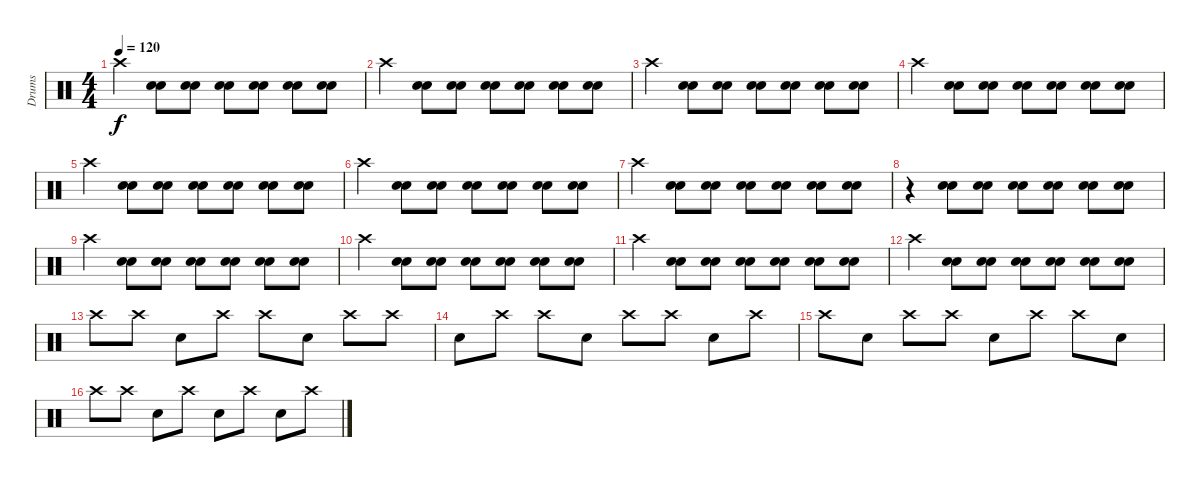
\track ("Drums" "Drums") {instrument percussion}
\staff {score}
\articulation defaults
\ts (4 4)
\tempo 120
\clef neutral
\ks c "Crash high (hit)".4{dy f}
("Electric Snare (hit)" "Electric Snare (hit)").8 ("Electric Snare (hit)" "Electric Snare (hit)").8 ("Electric Snare (hit)" "Electric Snare (hit)").8 ("Electric Snare (hit)" "Electric Snare (hit)").8 ("Electric Snare (hit)" "Electric Snare (hit)").8 ("Electric Snare (hit)" "Electric Snare (hit)").8 |
"Crash high (hit)".4 ("Electric Snare (hit)" "Electric Snare (hit)").8 ("Electric Snare (hit)" "Electric Snare (hit)").8 ("Electric Snare (hit)" "Electric Snare (hit)").8 ("Electric Snare (hit)" "Electric Snare (hit)").8 ("Electric Snare (hit)" "Electric Snare (hit)").8 ("Electric Snare (hit)" "Electric Snare (hit)").8 |
"Crash high (hit)".4 ("Electric Snare (hit)" "Electric Snare (hit)").8 ("Electric Snare (hit)" "Electric Snare (hit)").8 ("Electric Snare (hit)" "Electric Snare (hit)").8 ("Electric Snare (hit)" "Electric Snare (hit)").8 ("Electric Snare (hit)" "Electric Snare (hit)").8 ("Electric Snare (hit)" "Electric Snare (hit)").8 |
"Crash high (hit)".4 ("Electric Snare (hit)" "Electric Snare (hit)").8 ("Electric Snare (hit)" "Electric Snare (hit)").8 ("Electric Snare (hit)" "Electric Snare (hit)").8 ("Electric Snare (hit)" "Electric Snare (hit)").8 ("Electric Snare (hit)" "Electric Snare (hit)").8 ("Electric Snare (hit)" "Electric Snare (hit)").8 |
"Crash high (hit)".4 ("Electric Snare (hit)" "Electric Snare (hit)").8 ("Electric Snare (hit)" "Electric Snare (hit)").8 ("Electric Snare (hit)" "Electric Snare (hit)").8 ("Electric Snare (hit)" "Electric Snare (hit)").8 ("Electric Snare (hit)" "Electric Snare (hit)").8 ("Electric Snare (hit)" "Electric Snare (hit)").8 |
"Crash high (hit)".4 ("Electric Snare (hit)" "Electric Snare (hit)").8 ("Electric Snare (hit)" "Electric Snare (hit)").8 ("Electric Snare (hit)" "Electric Snare (hit)").8 ("Electric Snare (hit)" "Electric Snare (hit)").8 ("Electric Snare (hit)" "Electric Snare (hit)").8 ("Electric Snare (hit)" "Electric Snare (hit)").8 |
"Crash high (hit)".4 ("Electric Snare (hit)" "Electric Snare (hit)").8 ("Electric Snare (hit)" "Electric Snare (hit)").8 ("Electric Snare (hit)" "Electric Snare (hit)").8 ("Electric Snare (hit)" "Electric Snare (hit)").8 ("Electric Snare (hit)" "Electric Snare (hit)").8 ("Electric Snare (hit)" "Electric Snare (hit)").8 |
r.4 ("Electric Snare (hit)" "Electric Snare (hit)").8 ("Electric Snare (hit)" "Electric Snare (hit)").8 ("Electric Snare (hit)" "Electric Snare (hit)").8 ("Electric Snare (hit)" "Electric Snare (hit)").8 ("Electric Snare (hit)" "Electric Snare (hit)").8 ("Electric Snare (hit)" "Electric Snare (hit)").8 |
"Crash high (hit)".4 ("Electric Snare (hit)" "Electric Snare (hit)").8 ("Electric Snare (hit)" "Electric Snare (hit)").8 ("Electric Snare (hit)" "Electric Snare (hit)").8 ("Electric Snare (hit)" "Electric Snare (hit)").8 ("Electric Snare (hit)" "Electric Snare (hit)").8 ("Electric Snare (hit)" "Electric Snare (hit)").8 |
"Crash high (hit)".4 ("Electric Snare (hit)" "Electric Snare (hit)").8 ("Electric Snare (hit)" "Electric Snare (hit)").8 ("Electric Snare (hit)" "Electric Snare (hit)").8 ("Electric Snare (hit)" "Electric Snare (hit)").8 ("Electric Snare (hit)" "Electric Snare (hit)").8 ("Electric Snare (hit)" "Electric Snare (hit)").8 |
"Crash high (hit)".4 ("Electric Snare (hit)" "Electric Snare (hit)").8 ("Electric Snare (hit)" "Electric Snare (hit)").8 ("Electric Snare (hit)" "Electric Snare (hit)").8 ("Electric Snare (hit)" "Electric Snare (hit)").8 ("Electric Snare (hit)" "Electric Snare (hit)").8 ("Electric Snare (hit)" "Electric Snare (hit)").8 |
"Crash high (hit)".4 ("Electric Snare (hit)" "Electric Snare (hit)").8 ("Electric Snare (hit)" "Electric Snare (hit)").8 ("Electric Snare (hit)" "Electric Snare (hit)").8 ("Electric Snare (hit)" "Electric Snare (hit)").8 ("Electric Snare (hit)" "Electric Snare (hit)").8 ("Electric Snare (hit)" "Electric Snare (hit)").8 |
"Crash high (hit)".8 "Crash high (hit)".8 "Electric Snare (hit)".8 "Crash high (hit)".8 "Crash high (hit)".8 "Electric Snare (hit)".8 "Crash high (hit)".8 "Crash high (hit)".8 |
"Electric Snare (hit)".8 "Crash high (hit)".8 "Crash high (hit)".8 "Electric Snare (hit)".8 "Crash high (hit)".8 "Crash high (hit)".8 "Electric Snare (hit)".8 "Crash high (hit)".8 |
"Crash high (hit)".8 "Electric Snare (hit)".8 "Crash high (hit)".8 "Crash high (hit)".8 "Electric Snare (hit)".8 "Crash high (hit)".8 "Crash high (hit)".8 "Electric Snare (hit)".8 |
"Crash high (hit)".8 "Crash high (hit)".8 "Electric Snare (hit)".8 "Crash high (hit)".8 "Electric Snare (hit)".8 "Crash high (hit)".8 "Electric Snare (hit)".8 "Crash high (hit)".8
